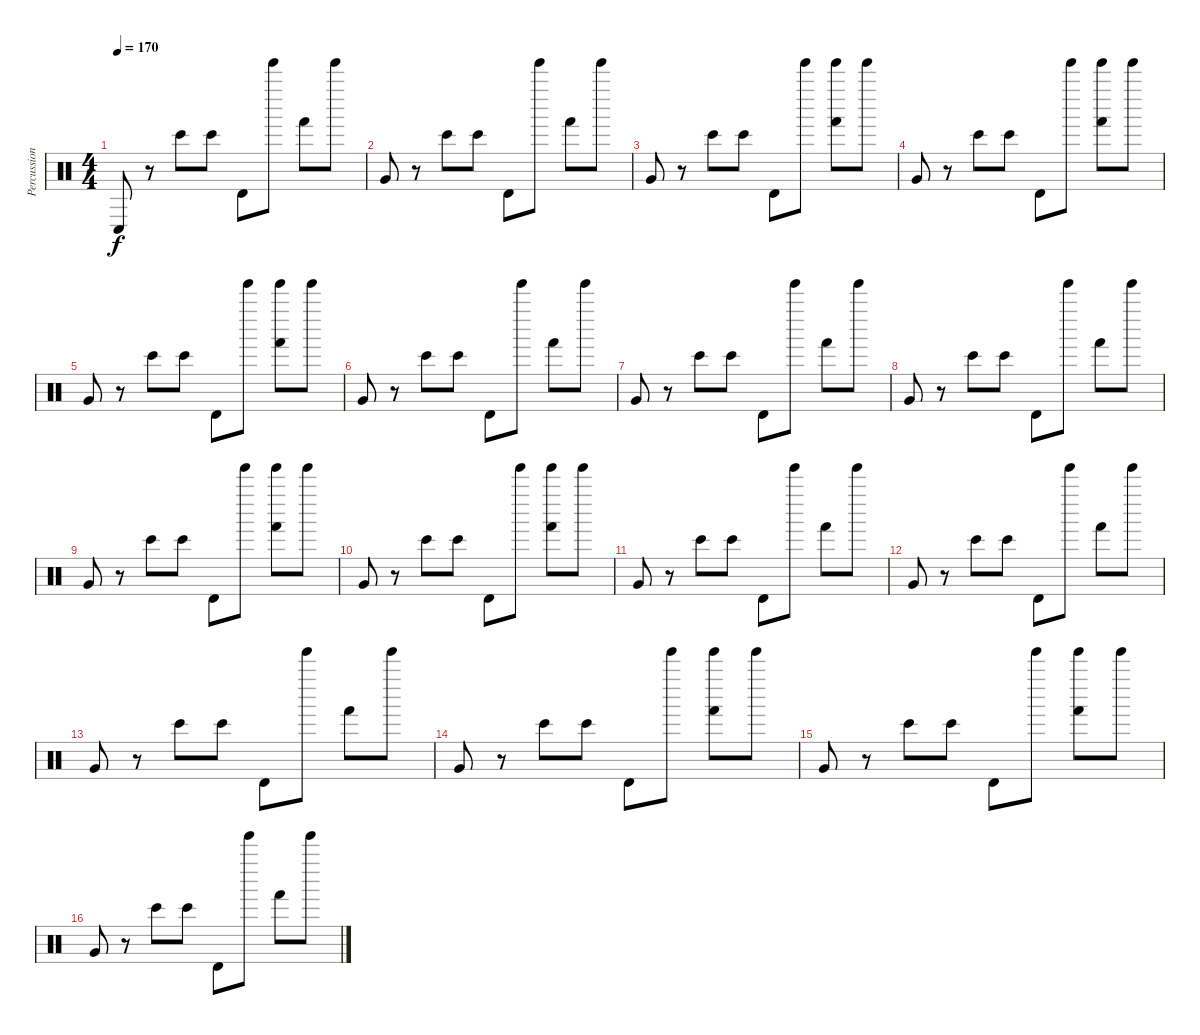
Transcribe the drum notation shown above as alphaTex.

\track ("Percussion" "Percussion") {instrument percussion}
\staff {score}
\articulation defaults
\ts (4 4)
\tempo 170
\clef neutral
\ks c "Conga low (hit)".8{dy f}
r.8 "Bongo High (hit)".8 "Bongo High (hit)".8 "Timbale high (hit)".8 "Tinkle Bell (hit)".8 "Hand (hit)".8 "Tinkle Bell (hit)".8 |
"Very Low Tom (hit)".8 r.8 "Bongo High (hit)".8 "Bongo High (hit)".8 "Timbale high (hit)".8 "Tinkle Bell (hit)".8 "Hand (hit)".8 "Tinkle Bell (hit)".8 |
"Very Low Tom (hit)".8 r.8 "Bongo High (hit)".8 "Bongo High (hit)".8 "Timbale high (hit)".8 "Tinkle Bell (hit)".8 ("Hand (hit)" "Tinkle Bell (hit)").8 "Tinkle Bell (hit)".8 |
"Very Low Tom (hit)".8 r.8 "Bongo High (hit)".8 "Bongo High (hit)".8 "Timbale high (hit)".8 "Tinkle Bell (hit)".8 ("Hand (hit)" "Tinkle Bell (hit)").8 "Tinkle Bell (hit)".8 |
"Very Low Tom (hit)".8 r.8 "Bongo High (hit)".8 "Bongo High (hit)".8 "Timbale high (hit)".8 "Tinkle Bell (hit)".8 ("Hand (hit)" "Tinkle Bell (hit)").8 "Tinkle Bell (hit)".8 |
"Very Low Tom (hit)".8 r.8 "Bongo High (hit)".8 "Bongo High (hit)".8 "Timbale high (hit)".8 "Tinkle Bell (hit)".8 "Hand (hit)".8 "Tinkle Bell (hit)".8 |
"Very Low Tom (hit)".8 r.8 "Bongo High (hit)".8 "Bongo High (hit)".8 "Timbale high (hit)".8 "Tinkle Bell (hit)".8 "Hand (hit)".8 "Tinkle Bell (hit)".8 |
"Very Low Tom (hit)".8 r.8 "Bongo High (hit)".8 "Bongo High (hit)".8 "Timbale high (hit)".8 "Tinkle Bell (hit)".8 "Hand (hit)".8 "Tinkle Bell (hit)".8 |
"Very Low Tom (hit)".8 r.8 "Bongo High (hit)".8 "Bongo High (hit)".8 "Timbale high (hit)".8 "Tinkle Bell (hit)".8 ("Hand (hit)" "Tinkle Bell (hit)").8 "Tinkle Bell (hit)".8 |
"Very Low Tom (hit)".8 r.8 "Bongo High (hit)".8 "Bongo High (hit)".8 "Timbale high (hit)".8 "Tinkle Bell (hit)".8 ("Hand (hit)" "Tinkle Bell (hit)").8 "Tinkle Bell (hit)".8 |
"Very Low Tom (hit)".8 r.8 "Bongo High (hit)".8 "Bongo High (hit)".8 "Timbale high (hit)".8 "Tinkle Bell (hit)".8 "Hand (hit)".8 "Tinkle Bell (hit)".8 |
"Very Low Tom (hit)".8 r.8 "Bongo High (hit)".8 "Bongo High (hit)".8 "Timbale high (hit)".8 "Tinkle Bell (hit)".8 "Hand (hit)".8 "Tinkle Bell (hit)".8 |
"Very Low Tom (hit)".8 r.8 "Bongo High (hit)".8 "Bongo High (hit)".8 "Timbale high (hit)".8 "Tinkle Bell (hit)".8 "Hand (hit)".8 "Tinkle Bell (hit)".8 |
"Very Low Tom (hit)".8 r.8 "Bongo High (hit)".8 "Bongo High (hit)".8 "Timbale high (hit)".8 "Tinkle Bell (hit)".8 ("Hand (hit)" "Tinkle Bell (hit)").8 "Tinkle Bell (hit)".8 |
"Very Low Tom (hit)".8 r.8 "Bongo High (hit)".8 "Bongo High (hit)".8 "Timbale high (hit)".8 "Tinkle Bell (hit)".8 ("Hand (hit)" "Tinkle Bell (hit)").8 "Tinkle Bell (hit)".8 |
"Very Low Tom (hit)".8 r.8 "Bongo High (hit)".8 "Bongo High (hit)".8 "Timbale high (hit)".8 "Tinkle Bell (hit)".8 "Hand (hit)".8 "Tinkle Bell (hit)".8
